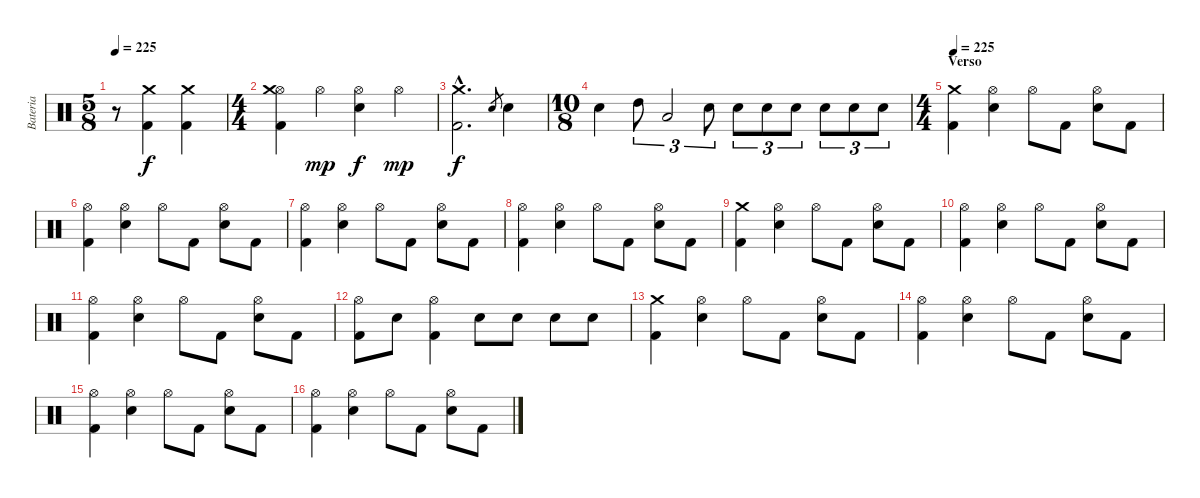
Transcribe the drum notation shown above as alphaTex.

\track ("Bateria" "Bateria") {instrument percussion}
\staff {score}
\articulation defaults
\ts (5 8)
\tempo 225
\clef neutral
\ks c
r.8{dy f} ("Crash medium (hit)" "Kick (hit) 2").4 ("Crash medium (hit)" "Kick (hit) 2").4 |
\ts (4 4)
("Hi-Hat (open)" "Kick (hit) 2" "Crash medium (hit)").4 "Hi-Hat (open)".4{dy mp} ("Snare (hit) 2" "Hi-Hat (open)").4{dy f} "Hi-Hat (open)".4{dy mp} |
("Crash medium (hit)"{hac} "Kick (hit) 2"{hac}).2{d dy f} "Snare (hit) 2".8{gr} "Snare (hit) 2".4 |
\ts (10 8)
"Snare (hit) 2".4 "High Tom (hit)".8{tu (3 2)} "Low Tom (hit)".2{tu (3 2)} "Snare (hit) 2".8{tu (3 2)} "Snare (hit) 2".8{tu (3 2)} "Snare (hit) 2".8{tu (3 2)} "Snare (hit) 2".8{tu (3 2)} "Snare (hit) 2".8{tu (3 2)} "Snare (hit) 2".8{tu (3 2)} "Snare (hit) 2".8{tu (3 2)} |
\ts (4 4)
\section ("" "Verso")
\tempo 225
("Crash medium (hit)" "Kick (hit) 2").4 ("Snare (hit) 2" "Hi-Hat (open)").4 "Hi-Hat (open)".8 "Kick (hit) 2".8 ("Hi-Hat (open)" "Snare (hit) 2").8 "Kick (hit) 2".8 |
("Hi-Hat (open)" "Kick (hit) 2").4 ("Snare (hit) 2" "Hi-Hat (open)").4 "Hi-Hat (open)".8 "Kick (hit) 2".8 ("Hi-Hat (open)" "Snare (hit) 2").8 "Kick (hit) 2".8 |
("Hi-Hat (open)" "Kick (hit) 2").4 ("Snare (hit) 2" "Hi-Hat (open)").4 "Hi-Hat (open)".8 "Kick (hit) 2".8 ("Hi-Hat (open)" "Snare (hit) 2").8 "Kick (hit) 2".8 |
("Hi-Hat (open)" "Kick (hit) 2").4 ("Snare (hit) 2" "Hi-Hat (open)").4 "Hi-Hat (open)".8 "Kick (hit) 2".8 ("Hi-Hat (open)" "Snare (hit) 2").8 "Kick (hit) 2".8 |
("Crash medium (hit)" "Kick (hit) 2").4 ("Snare (hit) 2" "Hi-Hat (open)").4 "Hi-Hat (open)".8 "Kick (hit) 2".8 ("Hi-Hat (open)" "Snare (hit) 2").8 "Kick (hit) 2".8 |
("Hi-Hat (open)" "Kick (hit) 2").4 ("Snare (hit) 2" "Hi-Hat (open)").4 "Hi-Hat (open)".8 "Kick (hit) 2".8 ("Hi-Hat (open)" "Snare (hit) 2").8 "Kick (hit) 2".8 |
("Hi-Hat (open)" "Kick (hit) 2").4 ("Snare (hit) 2" "Hi-Hat (open)").4 "Hi-Hat (open)".8 "Kick (hit) 2".8 ("Hi-Hat (open)" "Snare (hit) 2").8 "Kick (hit) 2".8 |
("Hi-Hat (open)" "Kick (hit) 2").8 "Snare (hit) 2".8 ("Kick (hit) 2" "Hi-Hat (open)").4 "Snare (hit) 2".8 "Snare (hit) 2".8 "Snare (hit) 2".8 "Snare (hit) 2".8 |
("Crash medium (hit)" "Kick (hit) 2").4 ("Snare (hit) 2" "Hi-Hat (open)").4 "Hi-Hat (open)".8 "Kick (hit) 2".8 ("Hi-Hat (open)" "Snare (hit) 2").8 "Kick (hit) 2".8 |
("Hi-Hat (open)" "Kick (hit) 2").4 ("Snare (hit) 2" "Hi-Hat (open)").4 "Hi-Hat (open)".8 "Kick (hit) 2".8 ("Hi-Hat (open)" "Snare (hit) 2").8 "Kick (hit) 2".8 |
("Hi-Hat (open)" "Kick (hit) 2").4 ("Snare (hit) 2" "Hi-Hat (open)").4 "Hi-Hat (open)".8 "Kick (hit) 2".8 ("Hi-Hat (open)" "Snare (hit) 2").8 "Kick (hit) 2".8 |
("Hi-Hat (open)" "Kick (hit) 2").4 ("Snare (hit) 2" "Hi-Hat (open)").4 "Hi-Hat (open)".8 "Kick (hit) 2".8 ("Hi-Hat (open)" "Snare (hit) 2").8 "Kick (hit) 2".8
